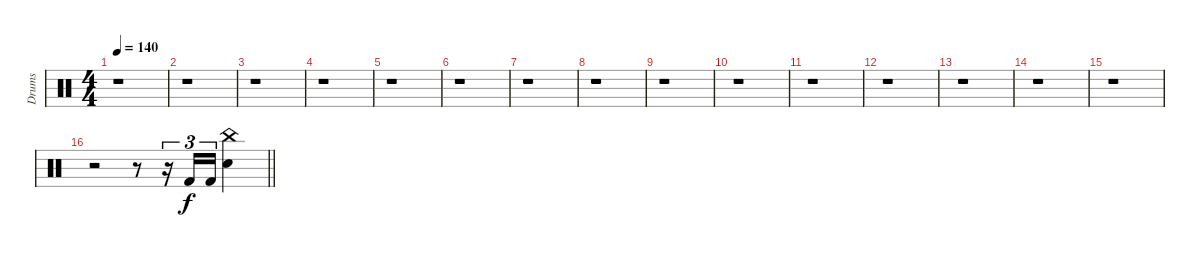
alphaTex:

\track ("Drums" "Drums") {instrument percussion}
\staff {score}
\articulation defaults
\ts (4 4)
\tempo 140
\clef neutral
\ks c
r.1{dy f} |
r.1 |
r.1 |
r.1 |
r.1 |
r.1 |
r.1 |
r.1 |
r.1 |
r.1 |
r.1 |
r.1 |
r.1 |
r.1 |
r.1 |
\barLineRight lightlight
r.2 r.8 r.16{tu (3 2)} "Kick (hit) 2".16{tu (3 2)} "Kick (hit) 2".16{tu (3 2)} ("China (hit)" "Electric Snare (hit)").4
